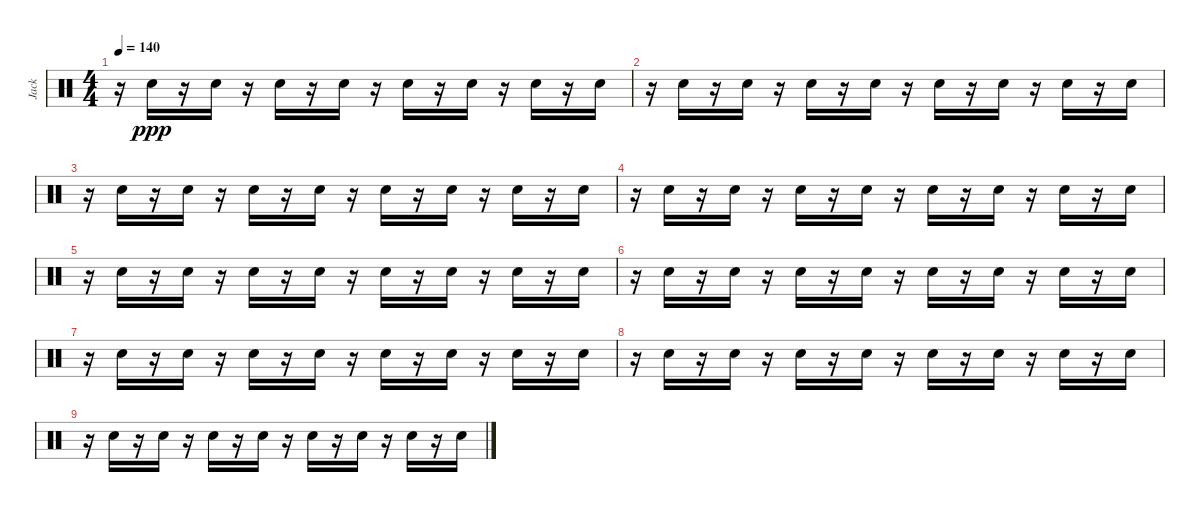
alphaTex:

\track ("Jack" "Jack") {instrument percussion}
\staff {score}
\articulation defaults
\ts (4 4)
\tempo 140
\clef neutral
\ks c
r.16{dy ppp} "Snare (hit) 2".16 r.16 "Snare (hit) 2".16 r.16 "Snare (hit) 2".16 r.16 "Snare (hit) 2".16 r.16 "Snare (hit) 2".16 r.16 "Snare (hit) 2".16 r.16 "Snare (hit) 2".16 r.16 "Snare (hit) 2".16 |
r.16 "Snare (hit) 2".16 r.16 "Snare (hit) 2".16 r.16 "Snare (hit) 2".16 r.16 "Snare (hit) 2".16 r.16 "Snare (hit) 2".16 r.16 "Snare (hit) 2".16 r.16 "Snare (hit) 2".16 r.16 "Snare (hit) 2".16 |
r.16 "Snare (hit) 2".16 r.16 "Snare (hit) 2".16 r.16 "Snare (hit) 2".16 r.16 "Snare (hit) 2".16 r.16 "Snare (hit) 2".16 r.16 "Snare (hit) 2".16 r.16 "Snare (hit) 2".16 r.16 "Snare (hit) 2".16 |
r.16 "Snare (hit) 2".16 r.16 "Snare (hit) 2".16 r.16 "Snare (hit) 2".16 r.16 "Snare (hit) 2".16 r.16 "Snare (hit) 2".16 r.16 "Snare (hit) 2".16 r.16 "Snare (hit) 2".16 r.16 "Snare (hit) 2".16 |
r.16 "Snare (hit) 2".16 r.16 "Snare (hit) 2".16 r.16 "Snare (hit) 2".16 r.16 "Snare (hit) 2".16 r.16 "Snare (hit) 2".16 r.16 "Snare (hit) 2".16 r.16 "Snare (hit) 2".16 r.16 "Snare (hit) 2".16 |
r.16 "Snare (hit) 2".16 r.16 "Snare (hit) 2".16 r.16 "Snare (hit) 2".16 r.16 "Snare (hit) 2".16 r.16 "Snare (hit) 2".16 r.16 "Snare (hit) 2".16 r.16 "Snare (hit) 2".16 r.16 "Snare (hit) 2".16 |
r.16 "Snare (hit) 2".16 r.16 "Snare (hit) 2".16 r.16 "Snare (hit) 2".16 r.16 "Snare (hit) 2".16 r.16 "Snare (hit) 2".16 r.16 "Snare (hit) 2".16 r.16 "Snare (hit) 2".16 r.16 "Snare (hit) 2".16 |
r.16 "Snare (hit) 2".16 r.16 "Snare (hit) 2".16 r.16 "Snare (hit) 2".16 r.16 "Snare (hit) 2".16 r.16 "Snare (hit) 2".16 r.16 "Snare (hit) 2".16 r.16 "Snare (hit) 2".16 r.16 "Snare (hit) 2".16 |
r.16 "Snare (hit) 2".16 r.16 "Snare (hit) 2".16 r.16 "Snare (hit) 2".16 r.16 "Snare (hit) 2".16 r.16 "Snare (hit) 2".16 r.16 "Snare (hit) 2".16 r.16 "Snare (hit) 2".16 r.16 "Snare (hit) 2".16
